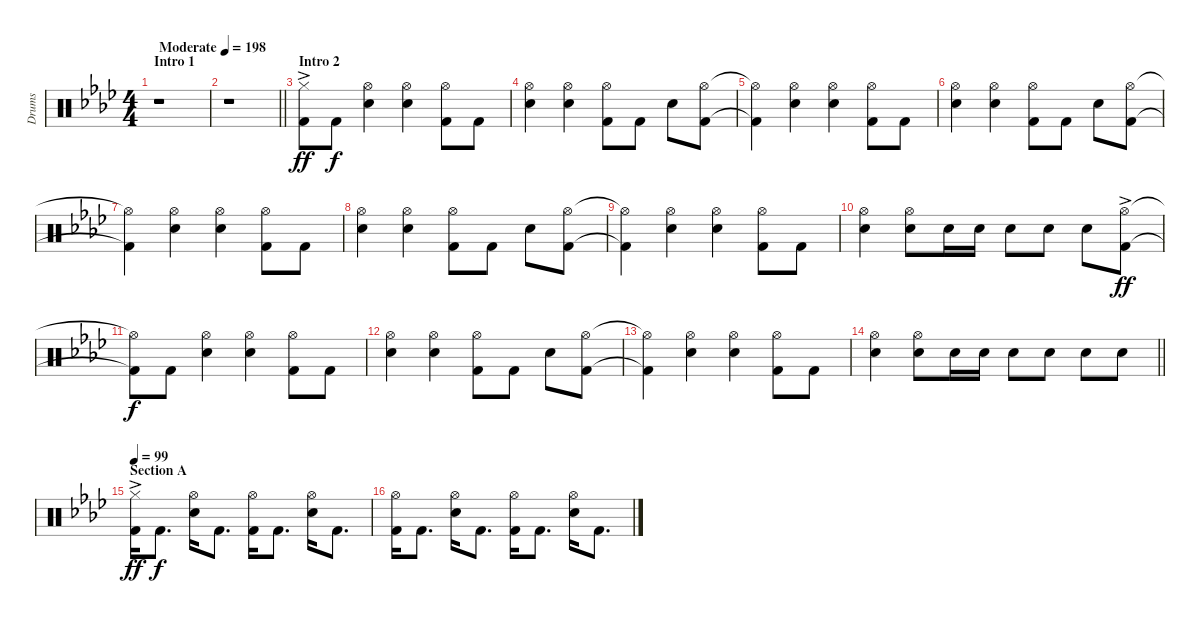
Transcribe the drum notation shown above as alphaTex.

\track ("Drums" "Drums") {instrument percussion}
\staff {score}
\articulation defaults
\ts (4 4)
\section ("" "Intro 1")
\tempo (198 "Moderate")
\clef neutral
\ks ab
r.1{dy ff} |
\barLineRight lightlight
r.1 |
\section ("" "Intro 2")
("Hi-Hat (closed)"{ac} "Kick (hit) 2").8 "Kick (hit) 2".8{dy f} ("Hi-Hat (open)" "Snare (hit) 2").4 ("Hi-Hat (open)" "Snare (hit) 2").4 ("Hi-Hat (open)" "Kick (hit) 2").8 "Kick (hit) 2".8 |
("Hi-Hat (open)" "Snare (hit) 2").4 ("Hi-Hat (open)" "Snare (hit) 2").4 ("Hi-Hat (open)" "Kick (hit) 2").8 "Kick (hit) 2".8 "Snare (hit) 2".8 ("Hi-Hat (open)" "Kick (hit) 2").8 |
("Hi-Hat (open)"{t} "Kick (hit) 2"{t}).4 ("Hi-Hat (open)" "Snare (hit) 2").4 ("Hi-Hat (open)" "Snare (hit) 2").4 ("Hi-Hat (open)" "Kick (hit) 2").8 "Kick (hit) 2".8 |
("Hi-Hat (open)" "Snare (hit) 2").4 ("Hi-Hat (open)" "Snare (hit) 2").4 ("Hi-Hat (open)" "Kick (hit) 2").8 "Kick (hit) 2".8 "Snare (hit) 2".8 ("Hi-Hat (open)" "Kick (hit) 2").8 |
("Hi-Hat (open)"{t} "Kick (hit) 2"{t}).4 ("Hi-Hat (open)" "Snare (hit) 2").4 ("Hi-Hat (open)" "Snare (hit) 2").4 ("Hi-Hat (open)" "Kick (hit) 2").8 "Kick (hit) 2".8 |
("Hi-Hat (open)" "Snare (hit) 2").4 ("Hi-Hat (open)" "Snare (hit) 2").4 ("Hi-Hat (open)" "Kick (hit) 2").8 "Kick (hit) 2".8 "Snare (hit) 2".8 ("Hi-Hat (open)" "Kick (hit) 2").8 |
("Hi-Hat (open)"{t} "Kick (hit) 2"{t}).4 ("Hi-Hat (open)" "Snare (hit) 2").4 ("Hi-Hat (open)" "Snare (hit) 2").4 ("Hi-Hat (open)" "Kick (hit) 2").8 "Kick (hit) 2".8 |
("Hi-Hat (open)" "Snare (hit) 2").4 ("Hi-Hat (open)" "Snare (hit) 2").8 "Snare (hit) 2".16 "Snare (hit) 2".16 "Snare (hit) 2".8 "Snare (hit) 2".8 "Snare (hit) 2".8 ("Hi-Hat (open)"{ac} "Kick (hit) 2").8{dy ff} |
("Hi-Hat (open)"{t} "Kick (hit) 2"{t}).8{dy f} "Kick (hit) 2".8 ("Hi-Hat (open)" "Snare (hit) 2").4 ("Hi-Hat (open)" "Snare (hit) 2").4 ("Hi-Hat (open)" "Kick (hit) 2").8 "Kick (hit) 2".8 |
("Hi-Hat (open)" "Snare (hit) 2").4 ("Hi-Hat (open)" "Snare (hit) 2").4 ("Hi-Hat (open)" "Kick (hit) 2").8 "Kick (hit) 2".8 "Snare (hit) 2".8 ("Hi-Hat (open)" "Kick (hit) 2").8 |
("Hi-Hat (open)"{t} "Kick (hit) 2"{t}).4 ("Hi-Hat (open)" "Snare (hit) 2").4 ("Hi-Hat (open)" "Snare (hit) 2").4 ("Hi-Hat (open)" "Kick (hit) 2").8 "Kick (hit) 2".8 |
\barLineRight lightlight
("Hi-Hat (open)" "Snare (hit) 2").4 ("Hi-Hat (open)" "Snare (hit) 2").8 "Snare (hit) 2".16 "Snare (hit) 2".16 "Snare (hit) 2".8 "Snare (hit) 2".8 "Snare (hit) 2".8 "Snare (hit) 2".8 |
\section ("" "Section A")
\tempo 99
("Hi-Hat (closed)"{ac} "Kick (hit) 2").16{dy ff} "Kick (hit) 2".8{d dy f} ("Hi-Hat (open)" "Snare (hit) 2").16 "Kick (hit) 2".8{d} ("Hi-Hat (open)" "Kick (hit) 2").16 "Kick (hit) 2".8{d} ("Hi-Hat (open)" "Snare (hit) 2").16 "Kick (hit) 2".8{d} |
("Hi-Hat (open)" "Kick (hit) 2").16 "Kick (hit) 2".8{d} ("Hi-Hat (open)" "Snare (hit) 2").16 "Kick (hit) 2".8{d} ("Hi-Hat (open)" "Kick (hit) 2").16 "Kick (hit) 2".8{d} ("Hi-Hat (open)" "Snare (hit) 2").16 "Kick (hit) 2".8{d}
